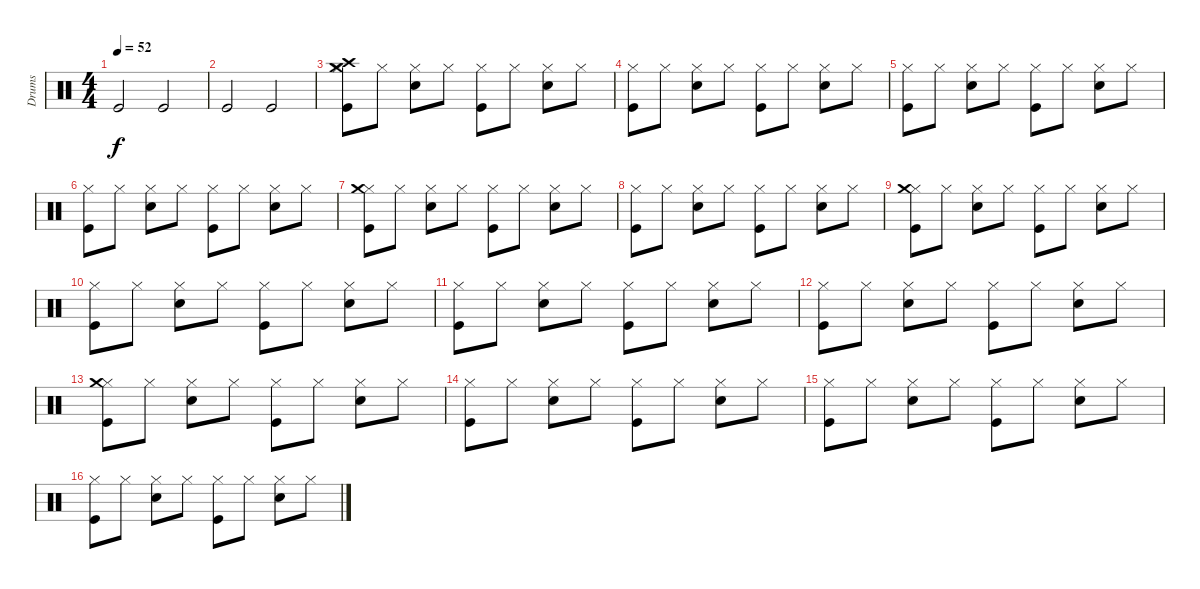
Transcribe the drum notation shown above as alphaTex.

\track ("Drums" "Drums") {instrument percussion}
\staff {score}
\articulation defaults
\ts (4 4)
\tempo 52
\clef neutral
\ks c "Kick (hit)".2{dy f} "Kick (hit)".2
|
"Kick (hit)".2 "Kick (hit)".2 |
("Kick (hit)" "Hi-Hat (closed)" "Crash medium (hit)" "Crash high (hit)").8 "Hi-Hat (closed)".8 ("Snare (hit) 2" "Hi-Hat (closed)").8 "Hi-Hat (closed)".8 ("Kick (hit)" "Hi-Hat (closed)").8 "Hi-Hat (closed)".8 ("Snare (hit) 2" "Hi-Hat (closed)").8 "Hi-Hat (closed)".8 |
("Kick (hit)" "Hi-Hat (closed)").8 "Hi-Hat (closed)".8 ("Snare (hit) 2" "Hi-Hat (closed)").8 "Hi-Hat (closed)".8 ("Kick (hit)" "Hi-Hat (closed)").8 "Hi-Hat (closed)".8 ("Snare (hit) 2" "Hi-Hat (closed)").8 "Hi-Hat (closed)".8 |
("Kick (hit)" "Hi-Hat (closed)").8 "Hi-Hat (closed)".8 ("Snare (hit) 2" "Hi-Hat (closed)").8 "Hi-Hat (closed)".8 ("Kick (hit)" "Hi-Hat (closed)").8 "Hi-Hat (closed)".8 ("Snare (hit) 2" "Hi-Hat (closed)").8 "Hi-Hat (closed)".8 |
("Kick (hit)" "Hi-Hat (closed)").8 "Hi-Hat (closed)".8 ("Snare (hit) 2" "Hi-Hat (closed)").8 "Hi-Hat (closed)".8 ("Kick (hit)" "Hi-Hat (closed)").8 "Hi-Hat (closed)".8 ("Snare (hit) 2" "Hi-Hat (closed)").8 "Hi-Hat (closed)".8 |
("Kick (hit)" "Hi-Hat (closed)" "Crash medium (hit)").8 "Hi-Hat (closed)".8 ("Snare (hit) 2" "Hi-Hat (closed)").8 "Hi-Hat (closed)".8 ("Kick (hit)" "Hi-Hat (closed)").8 "Hi-Hat (closed)".8 ("Snare (hit) 2" "Hi-Hat (closed)").8 "Hi-Hat (closed)".8 |
("Kick (hit)" "Hi-Hat (closed)").8 "Hi-Hat (closed)".8 ("Snare (hit) 2" "Hi-Hat (closed)").8 "Hi-Hat (closed)".8 ("Kick (hit)" "Hi-Hat (closed)").8 "Hi-Hat (closed)".8 ("Snare (hit) 2" "Hi-Hat (closed)").8 "Hi-Hat (closed)".8 |
("Kick (hit)" "Hi-Hat (closed)" "Crash medium (hit)").8 "Hi-Hat (closed)".8 ("Snare (hit) 2" "Hi-Hat (closed)").8 "Hi-Hat (closed)".8 ("Kick (hit)" "Hi-Hat (closed)").8 "Hi-Hat (closed)".8 ("Snare (hit) 2" "Hi-Hat (closed)").8 "Hi-Hat (closed)".8 |
("Kick (hit)" "Hi-Hat (closed)").8 "Hi-Hat (closed)".8 ("Snare (hit) 2" "Hi-Hat (closed)").8 "Hi-Hat (closed)".8 ("Kick (hit)" "Hi-Hat (closed)").8 "Hi-Hat (closed)".8 ("Snare (hit) 2" "Hi-Hat (closed)").8 "Hi-Hat (closed)".8 |
("Kick (hit)" "Hi-Hat (closed)").8 "Hi-Hat (closed)".8 ("Snare (hit) 2" "Hi-Hat (closed)").8 "Hi-Hat (closed)".8 ("Kick (hit)" "Hi-Hat (closed)").8 "Hi-Hat (closed)".8 ("Snare (hit) 2" "Hi-Hat (closed)").8 "Hi-Hat (closed)".8 |
("Kick (hit)" "Hi-Hat (closed)").8 "Hi-Hat (closed)".8 ("Snare (hit) 2" "Hi-Hat (closed)").8 "Hi-Hat (closed)".8 ("Kick (hit)" "Hi-Hat (closed)").8 "Hi-Hat (closed)".8 ("Snare (hit) 2" "Hi-Hat (closed)").8 "Hi-Hat (closed)".8 |
("Kick (hit)" "Hi-Hat (closed)" "Crash medium (hit)").8 "Hi-Hat (closed)".8 ("Snare (hit) 2" "Hi-Hat (closed)").8 "Hi-Hat (closed)".8 ("Kick (hit)" "Hi-Hat (closed)").8 "Hi-Hat (closed)".8 ("Snare (hit) 2" "Hi-Hat (closed)").8 "Hi-Hat (closed)".8 |
("Kick (hit)" "Hi-Hat (closed)").8 "Hi-Hat (closed)".8 ("Snare (hit) 2" "Hi-Hat (closed)").8 "Hi-Hat (closed)".8 ("Kick (hit)" "Hi-Hat (closed)").8 "Hi-Hat (closed)".8 ("Snare (hit) 2" "Hi-Hat (closed)").8 "Hi-Hat (closed)".8 |
("Kick (hit)" "Hi-Hat (closed)").8 "Hi-Hat (closed)".8 ("Snare (hit) 2" "Hi-Hat (closed)").8 "Hi-Hat (closed)".8 ("Kick (hit)" "Hi-Hat (closed)").8 "Hi-Hat (closed)".8 ("Snare (hit) 2" "Hi-Hat (closed)").8 "Hi-Hat (closed)".8 |
("Kick (hit)" "Hi-Hat (closed)").8 "Hi-Hat (closed)".8 ("Snare (hit) 2" "Hi-Hat (closed)").8 "Hi-Hat (closed)".8 ("Kick (hit)" "Hi-Hat (closed)").8 "Hi-Hat (closed)".8 ("Snare (hit) 2" "Hi-Hat (closed)").8 "Hi-Hat (closed)".8
